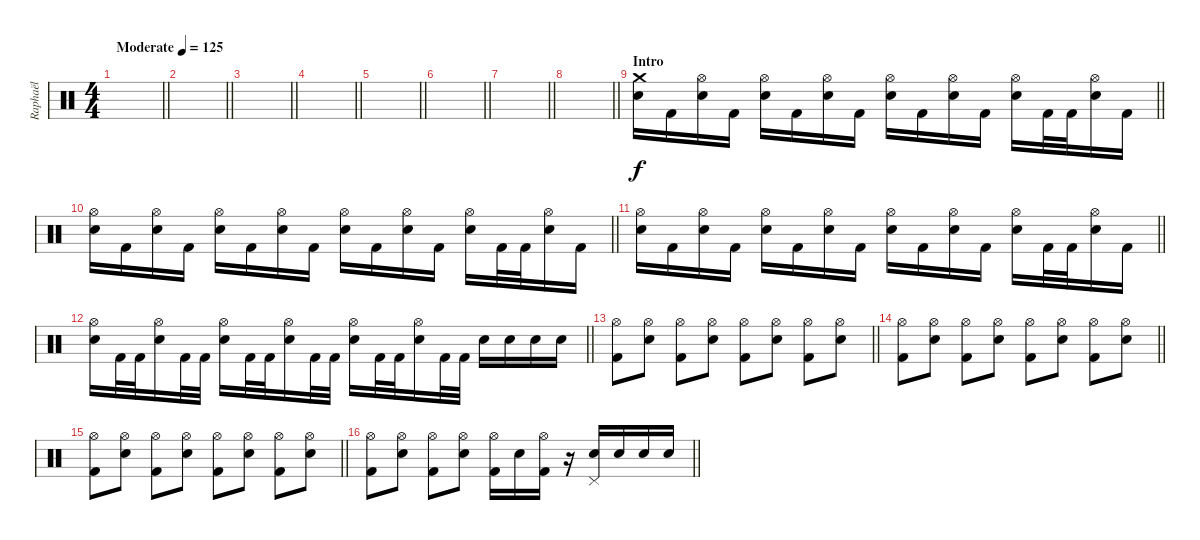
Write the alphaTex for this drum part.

\track ("Raphaël" "Raphaël") {instrument percussion}
\staff {score}
\articulation defaults
\ts (4 4)
\tempo (125 "Moderate")
\clef neutral
\barLineRight lightlight
\ks c
|
\barLineRight lightlight
|
\barLineRight lightlight
|
\barLineRight lightlight
|
\barLineRight lightlight
|
\barLineRight lightlight
|
\barLineRight lightlight
|
\barLineRight lightlight
|
\section ("" "Intro")
\barLineRight lightlight
("Electric Snare (hit)" "Crash medium (hit)").16 "Kick (hit) 2".16 ("Electric Snare (hit)" "Hi-Hat (open)").16 "Kick (hit) 2".16 ("Electric Snare (hit)" "Hi-Hat (open)").16 "Kick (hit) 2".16 ("Electric Snare (hit)" "Hi-Hat (open)").16 "Kick (hit) 2".16 ("Electric Snare (hit)" "Hi-Hat (open)").16 "Kick (hit) 2".16 ("Electric Snare (hit)" "Hi-Hat (open)").16 "Kick (hit) 2".16 ("Electric Snare (hit)" "Hi-Hat (open)").16 "Kick (hit) 2".32 "Kick (hit) 2".32 ("Electric Snare (hit)" "Hi-Hat (open)").16 "Kick (hit) 2".16 |
\barLineRight lightlight
("Electric Snare (hit)" "Hi-Hat (open)").16 "Kick (hit) 2".16 ("Electric Snare (hit)" "Hi-Hat (open)").16 "Kick (hit) 2".16 ("Electric Snare (hit)" "Hi-Hat (open)").16 "Kick (hit) 2".16 ("Electric Snare (hit)" "Hi-Hat (open)").16 "Kick (hit) 2".16 ("Electric Snare (hit)" "Hi-Hat (open)").16 "Kick (hit) 2".16 ("Electric Snare (hit)" "Hi-Hat (open)").16 "Kick (hit) 2".16 ("Electric Snare (hit)" "Hi-Hat (open)").16 "Kick (hit) 2".32 "Kick (hit) 2".32 ("Electric Snare (hit)" "Hi-Hat (open)").16 "Kick (hit) 2".16 |
\barLineRight lightlight
("Electric Snare (hit)" "Hi-Hat (open)").16 "Kick (hit) 2".16 ("Electric Snare (hit)" "Hi-Hat (open)").16 "Kick (hit) 2".16 ("Electric Snare (hit)" "Hi-Hat (open)").16 "Kick (hit) 2".16 ("Electric Snare (hit)" "Hi-Hat (open)").16 "Kick (hit) 2".16 ("Electric Snare (hit)" "Hi-Hat (open)").16 "Kick (hit) 2".16 ("Electric Snare (hit)" "Hi-Hat (open)").16 "Kick (hit) 2".16 ("Electric Snare (hit)" "Hi-Hat (open)").16 "Kick (hit) 2".32 "Kick (hit) 2".32 ("Electric Snare (hit)" "Hi-Hat (open)").16 "Kick (hit) 2".16 |
\barLineRight lightlight
("Electric Snare (hit)" "Hi-Hat (open)").16 "Kick (hit) 2".32 "Kick (hit) 2".32 ("Electric Snare (hit)" "Hi-Hat (open)").16 "Kick (hit) 2".32 "Kick (hit) 2".32 ("Electric Snare (hit)" "Hi-Hat (open)").16 "Kick (hit) 2".32 "Kick (hit) 2".32 ("Electric Snare (hit)" "Hi-Hat (open)").16 "Kick (hit) 2".32 "Kick (hit) 2".32 ("Electric Snare (hit)" "Hi-Hat (open)").16 "Kick (hit) 2".32 "Kick (hit) 2".32 ("Electric Snare (hit)" "Hi-Hat (open)").16 "Kick (hit) 2".32 "Kick (hit) 2".32 "Electric Snare (hit)".16 "Electric Snare (hit)".16 "Electric Snare (hit)".16 "Electric Snare (hit)".16 |
\barLineRight lightlight
("Kick (hit) 2" "Hi-Hat (open)").8 ("Electric Snare (hit)" "Hi-Hat (open)").8 ("Kick (hit) 2" "Hi-Hat (open)").8 ("Electric Snare (hit)" "Hi-Hat (open)").8 ("Kick (hit) 2" "Hi-Hat (open)").8 ("Electric Snare (hit)" "Hi-Hat (open)").8 ("Kick (hit) 2" "Hi-Hat (open)").8 ("Electric Snare (hit)" "Hi-Hat (open)").8 |
\barLineRight lightlight
("Kick (hit) 2" "Hi-Hat (open)").8 ("Electric Snare (hit)" "Hi-Hat (open)").8 ("Kick (hit) 2" "Hi-Hat (open)").8 ("Electric Snare (hit)" "Hi-Hat (open)").8 ("Kick (hit) 2" "Hi-Hat (open)").8 ("Electric Snare (hit)" "Hi-Hat (open)").8 ("Kick (hit) 2" "Hi-Hat (open)").8 ("Electric Snare (hit)" "Hi-Hat (open)").8 |
\barLineRight lightlight
("Kick (hit) 2" "Hi-Hat (open)").8 ("Electric Snare (hit)" "Hi-Hat (open)").8 ("Kick (hit) 2" "Hi-Hat (open)").8 ("Electric Snare (hit)" "Hi-Hat (open)").8 ("Kick (hit) 2" "Hi-Hat (open)").8 ("Electric Snare (hit)" "Hi-Hat (open)").8 ("Kick (hit) 2" "Hi-Hat (open)").8 ("Electric Snare (hit)" "Hi-Hat (open)").8 |
\barLineRight lightlight
("Kick (hit) 2" "Hi-Hat (open)").8 ("Electric Snare (hit)" "Hi-Hat (open)").8 ("Kick (hit) 2" "Hi-Hat (open)").8 ("Electric Snare (hit)" "Hi-Hat (open)").8 ("Kick (hit) 2" "Hi-Hat (open)").16 "Electric Snare (hit)".16 ("Kick (hit) 2" "Hi-Hat (open)").16 r.16 ("Electric Snare (hit)" "Pedal Hi-Hat (hit)").16 "Electric Snare (hit)".16 "Electric Snare (hit)".16 "Electric Snare (hit)".16
